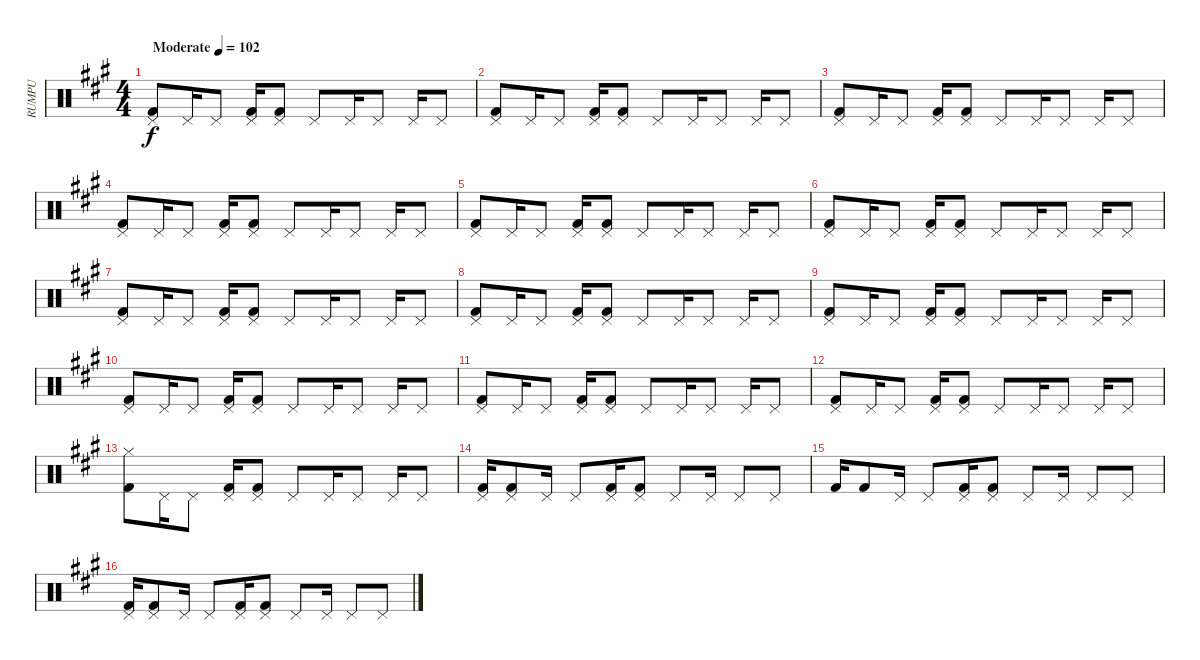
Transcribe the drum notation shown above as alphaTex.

\track ("RUMPU" "RUMPU") {instrument percussion}
\staff {score}
\articulation defaults
\ts (4 4)
\tempo (102 "Moderate")
\clef neutral
\ks a
("Kick (hit) 2" "Pedal Hi-Hat (hit)").8{dy f} "Pedal Hi-Hat (hit)".16 "Pedal Hi-Hat (hit)".8 ("Kick (hit) 2" "Pedal Hi-Hat (hit)").16 ("Kick (hit) 2" "Pedal Hi-Hat (hit)").8 "Pedal Hi-Hat (hit)".8 "Pedal Hi-Hat (hit)".16 "Pedal Hi-Hat (hit)".8 "Pedal Hi-Hat (hit)".16 "Pedal Hi-Hat (hit)".8 |
("Kick (hit) 2" "Pedal Hi-Hat (hit)").8 "Pedal Hi-Hat (hit)".16 "Pedal Hi-Hat (hit)".8 ("Kick (hit) 2" "Pedal Hi-Hat (hit)").16 ("Kick (hit) 2" "Pedal Hi-Hat (hit)").8 "Pedal Hi-Hat (hit)".8 "Pedal Hi-Hat (hit)".16 "Pedal Hi-Hat (hit)".8 "Pedal Hi-Hat (hit)".16 "Pedal Hi-Hat (hit)".8 |
("Kick (hit) 2" "Pedal Hi-Hat (hit)").8 "Pedal Hi-Hat (hit)".16 "Pedal Hi-Hat (hit)".8 ("Kick (hit) 2" "Pedal Hi-Hat (hit)").16 ("Kick (hit) 2" "Pedal Hi-Hat (hit)").8 "Pedal Hi-Hat (hit)".8 "Pedal Hi-Hat (hit)".16 "Pedal Hi-Hat (hit)".8 "Pedal Hi-Hat (hit)".16 "Pedal Hi-Hat (hit)".8 |
("Kick (hit) 2" "Pedal Hi-Hat (hit)").8 "Pedal Hi-Hat (hit)".16 "Pedal Hi-Hat (hit)".8 ("Kick (hit) 2" "Pedal Hi-Hat (hit)").16 ("Kick (hit) 2" "Pedal Hi-Hat (hit)").8 "Pedal Hi-Hat (hit)".8 "Pedal Hi-Hat (hit)".16 "Pedal Hi-Hat (hit)".8 "Pedal Hi-Hat (hit)".16 "Pedal Hi-Hat (hit)".8 |
("Kick (hit) 2" "Pedal Hi-Hat (hit)").8 "Pedal Hi-Hat (hit)".16 "Pedal Hi-Hat (hit)".8 ("Kick (hit) 2" "Pedal Hi-Hat (hit)").16 ("Kick (hit) 2" "Pedal Hi-Hat (hit)").8 "Pedal Hi-Hat (hit)".8 "Pedal Hi-Hat (hit)".16 "Pedal Hi-Hat (hit)".8 "Pedal Hi-Hat (hit)".16 "Pedal Hi-Hat (hit)".8 |
("Kick (hit) 2" "Pedal Hi-Hat (hit)").8 "Pedal Hi-Hat (hit)".16 "Pedal Hi-Hat (hit)".8 ("Kick (hit) 2" "Pedal Hi-Hat (hit)").16 ("Kick (hit) 2" "Pedal Hi-Hat (hit)").8 "Pedal Hi-Hat (hit)".8 "Pedal Hi-Hat (hit)".16 "Pedal Hi-Hat (hit)".8 "Pedal Hi-Hat (hit)".16 "Pedal Hi-Hat (hit)".8 |
("Kick (hit) 2" "Pedal Hi-Hat (hit)").8 "Pedal Hi-Hat (hit)".16 "Pedal Hi-Hat (hit)".8 ("Kick (hit) 2" "Pedal Hi-Hat (hit)").16 ("Kick (hit) 2" "Pedal Hi-Hat (hit)").8 "Pedal Hi-Hat (hit)".8 "Pedal Hi-Hat (hit)".16 "Pedal Hi-Hat (hit)".8 "Pedal Hi-Hat (hit)".16 "Pedal Hi-Hat (hit)".8 |
("Kick (hit) 2" "Pedal Hi-Hat (hit)").8 "Pedal Hi-Hat (hit)".16 "Pedal Hi-Hat (hit)".8 ("Kick (hit) 2" "Pedal Hi-Hat (hit)").16 ("Kick (hit) 2" "Pedal Hi-Hat (hit)").8 "Pedal Hi-Hat (hit)".8 "Pedal Hi-Hat (hit)".16 "Pedal Hi-Hat (hit)".8 "Pedal Hi-Hat (hit)".16 "Pedal Hi-Hat (hit)".8 |
("Kick (hit) 2" "Pedal Hi-Hat (hit)").8 "Pedal Hi-Hat (hit)".16 "Pedal Hi-Hat (hit)".8 ("Kick (hit) 2" "Pedal Hi-Hat (hit)").16 ("Kick (hit) 2" "Pedal Hi-Hat (hit)").8 "Pedal Hi-Hat (hit)".8 "Pedal Hi-Hat (hit)".16 "Pedal Hi-Hat (hit)".8 "Pedal Hi-Hat (hit)".16 "Pedal Hi-Hat (hit)".8 |
("Kick (hit) 2" "Pedal Hi-Hat (hit)").8 "Pedal Hi-Hat (hit)".16 "Pedal Hi-Hat (hit)".8 ("Kick (hit) 2" "Pedal Hi-Hat (hit)").16 ("Kick (hit) 2" "Pedal Hi-Hat (hit)").8 "Pedal Hi-Hat (hit)".8 "Pedal Hi-Hat (hit)".16 "Pedal Hi-Hat (hit)".8 "Pedal Hi-Hat (hit)".16 "Pedal Hi-Hat (hit)".8 |
("Kick (hit) 2" "Pedal Hi-Hat (hit)").8 "Pedal Hi-Hat (hit)".16 "Pedal Hi-Hat (hit)".8 ("Kick (hit) 2" "Pedal Hi-Hat (hit)").16 ("Kick (hit) 2" "Pedal Hi-Hat (hit)").8 "Pedal Hi-Hat (hit)".8 "Pedal Hi-Hat (hit)".16 "Pedal Hi-Hat (hit)".8 "Pedal Hi-Hat (hit)".16 "Pedal Hi-Hat (hit)".8 |
("Kick (hit) 2" "Pedal Hi-Hat (hit)").8 "Pedal Hi-Hat (hit)".16 "Pedal Hi-Hat (hit)".8 ("Kick (hit) 2" "Pedal Hi-Hat (hit)").16 ("Kick (hit) 2" "Pedal Hi-Hat (hit)").8 "Pedal Hi-Hat (hit)".8 "Pedal Hi-Hat (hit)".16 "Pedal Hi-Hat (hit)".8 "Pedal Hi-Hat (hit)".16 "Pedal Hi-Hat (hit)".8 |
("Kick (hit) 2" "Hi-Hat (closed)").8 "Pedal Hi-Hat (hit)".16 "Pedal Hi-Hat (hit)".8 ("Kick (hit) 2" "Pedal Hi-Hat (hit)").16 ("Kick (hit) 2" "Pedal Hi-Hat (hit)").8 "Pedal Hi-Hat (hit)".8 "Pedal Hi-Hat (hit)".16 "Pedal Hi-Hat (hit)".8 "Pedal Hi-Hat (hit)".16 "Pedal Hi-Hat (hit)".8 |
("Kick (hit) 2" "Pedal Hi-Hat (hit)").16 ("Kick (hit) 2" "Pedal Hi-Hat (hit)").8 "Pedal Hi-Hat (hit)".16 "Pedal Hi-Hat (hit)".8 ("Kick (hit) 2" "Pedal Hi-Hat (hit)").16 ("Kick (hit) 2" "Pedal Hi-Hat (hit)").8 "Pedal Hi-Hat (hit)".8 "Pedal Hi-Hat (hit)".16 "Pedal Hi-Hat (hit)".8 "Pedal Hi-Hat (hit)".8 |
"Kick (hit) 2".16 "Kick (hit) 2".8 "Pedal Hi-Hat (hit)".16 "Pedal Hi-Hat (hit)".8 ("Kick (hit) 2" "Pedal Hi-Hat (hit)").16 ("Kick (hit) 2" "Pedal Hi-Hat (hit)").8 "Pedal Hi-Hat (hit)".8 "Pedal Hi-Hat (hit)".16 "Pedal Hi-Hat (hit)".8 "Pedal Hi-Hat (hit)".8 |
("Kick (hit) 2" "Pedal Hi-Hat (hit)").16 ("Kick (hit) 2" "Pedal Hi-Hat (hit)").8 "Pedal Hi-Hat (hit)".16 "Pedal Hi-Hat (hit)".8 ("Kick (hit) 2" "Pedal Hi-Hat (hit)").16 ("Kick (hit) 2" "Pedal Hi-Hat (hit)").8 "Pedal Hi-Hat (hit)".8 "Pedal Hi-Hat (hit)".16 "Pedal Hi-Hat (hit)".8 "Pedal Hi-Hat (hit)".8
